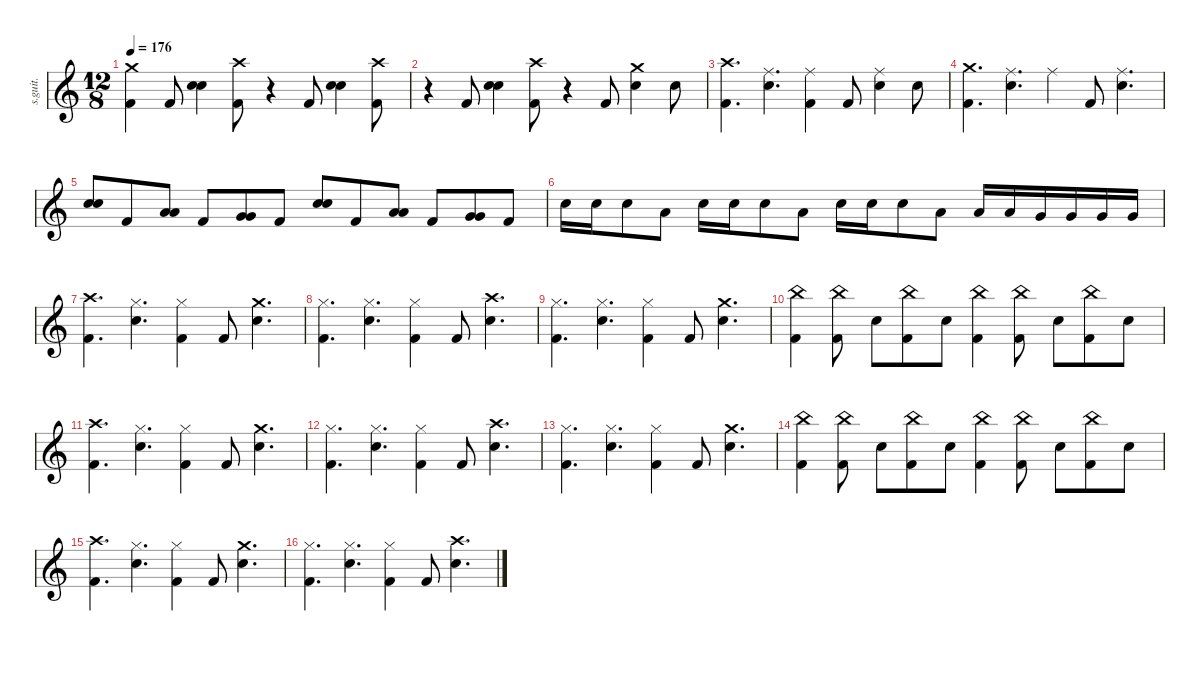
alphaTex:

\defaultSystemsLayout 4
\hideDynamics
\bracketExtendMode nobrackets
\track ("Vinnie Paul" "s.guit.") {instrument percussion}
\staff {score}
\articulation defaults
\ts (12 8)
\tempo 176
\clef g2
\ks c
("Crash medium (hit)" "Kick (hit) 2").4{lyrics (0 "") lyrics (1 "") lyrics (2 "") lyrics (3 "") lyrics (4 "") dy f} "Kick (hit) 2".8{lyrics (0 "") lyrics (1 "") lyrics (2 "") lyrics (3 "") lyrics (4 "")} ("Snare (hit) 2" "Snare (hit) 2").4{lyrics (0 "") lyrics (1 "") lyrics (2 "") lyrics (3 "") lyrics (4 "")} ("Crash high (hit)" "Kick (hit) 2").8{lyrics (0 "") lyrics (1 "") lyrics (2 "") lyrics (3 "") lyrics (4 "")} r.4 "Kick (hit) 2".8{lyrics (0 "") lyrics (1 "") lyrics (2 "") lyrics (3 "") lyrics (4 "")} ("Snare (hit) 2" "Snare (hit) 2").4{lyrics (0 "") lyrics (1 "") lyrics (2 "") lyrics (3 "") lyrics (4 "")} ("Crash high (hit)" "Kick (hit) 2").8{lyrics (0 "") lyrics (1 "") lyrics (2 "") lyrics (3 "") lyrics (4 "")} |
r.4 "Kick (hit) 2".8{lyrics (0 "") lyrics (1 "") lyrics (2 "") lyrics (3 "") lyrics (4 "")} ("Snare (hit) 2" "Snare (hit) 2").4{lyrics (0 "") lyrics (1 "") lyrics (2 "") lyrics (3 "") lyrics (4 "")} ("Crash high (hit)" "Kick (hit) 2").8{lyrics (0 "") lyrics (1 "") lyrics (2 "") lyrics (3 "") lyrics (4 "")} r.4 "Kick (hit) 2".8{lyrics (0 "") lyrics (1 "") lyrics (2 "") lyrics (3 "") lyrics (4 "")} ("Crash medium (hit)" "Snare (hit) 2").4{lyrics (0 "") lyrics (1 "") lyrics (2 "") lyrics (3 "") lyrics (4 "")} "Snare (hit) 2".8{lyrics (0 "") lyrics (1 "") lyrics (2 "") lyrics (3 "") lyrics (4 "")} |
("Crash high (hit)" "Kick (hit) 2").4{d lyrics (0 "") lyrics (1 "") lyrics (2 "") lyrics (3 "") lyrics (4 "")} ("Ride (middle)" "Snare (hit) 2").4{d lyrics (0 "") lyrics (1 "") lyrics (2 "") lyrics (3 "") lyrics (4 "")} ("Ride (middle)" "Kick (hit) 2").4{lyrics (0 "") lyrics (1 "") lyrics (2 "") lyrics (3 "") lyrics (4 "")} "Kick (hit) 2".8{lyrics (0 "") lyrics (1 "") lyrics (2 "") lyrics (3 "") lyrics (4 "")} ("Ride (middle)" "Snare (hit) 2").4{lyrics (0 "") lyrics (1 "") lyrics (2 "") lyrics (3 "") lyrics (4 "")} "Snare (hit) 2".8{lyrics (0 "") lyrics (1 "") lyrics (2 "") lyrics (3 "") lyrics (4 "")} |
("Crash medium (hit)" "Kick (hit) 2").4{d lyrics (0 "") lyrics (1 "") lyrics (2 "") lyrics (3 "") lyrics (4 "")} ("Ride (middle)" "Snare (hit) 2").4{d lyrics (0 "") lyrics (1 "") lyrics (2 "") lyrics (3 "") lyrics (4 "")} "Ride (middle)".4{lyrics (0 "") lyrics (1 "") lyrics (2 "") lyrics (3 "") lyrics (4 "")} "Kick (hit) 2".8{lyrics (0 "") lyrics (1 "") lyrics (2 "") lyrics (3 "") lyrics (4 "")} ("Ride (middle)" "Snare (hit) 2").4{d lyrics (0 "") lyrics (1 "") lyrics (2 "") lyrics (3 "") lyrics (4 "")} |
("Snare (hit) 2" "Snare (hit) 2").8{lyrics (0 "") lyrics (1 "") lyrics (2 "") lyrics (3 "") lyrics (4 "")} "Kick (hit) 2".8{lyrics (0 "") lyrics (1 "") lyrics (2 "") lyrics (3 "") lyrics (4 "")} ("Low Tom (hit)" "Low Tom (hit)").8{lyrics (0 "") lyrics (1 "") lyrics (2 "") lyrics (3 "") lyrics (4 "")} "Kick (hit) 2".8{lyrics (0 "") lyrics (1 "") lyrics (2 "") lyrics (3 "") lyrics (4 "")} ("Very Low Tom (hit)" "Very Low Tom (hit)").8{lyrics (0 "") lyrics (1 "") lyrics (2 "") lyrics (3 "") lyrics (4 "")} "Kick (hit) 2".8{lyrics (0 "") lyrics (1 "") lyrics (2 "") lyrics (3 "") lyrics (4 "")} ("Snare (hit) 2" "Snare (hit) 2").8{lyrics (0 "") lyrics (1 "") lyrics (2 "") lyrics (3 "") lyrics (4 "")} "Kick (hit) 2".8{lyrics (0 "") lyrics (1 "") lyrics (2 "") lyrics (3 "") lyrics (4 "")} ("Low Tom (hit)" "Low Tom (hit)").8{lyrics (0 "") lyrics (1 "") lyrics (2 "") lyrics (3 "") lyrics (4 "")} "Kick (hit) 2".8{lyrics (0 "") lyrics (1 "") lyrics (2 "") lyrics (3 "") lyrics (4 "")} ("Very Low Tom (hit)" "Very Low Tom (hit)").8{lyrics (0 "") lyrics (1 "") lyrics (2 "") lyrics (3 "") lyrics (4 "")} "Kick (hit) 2".8{lyrics (0 "") lyrics (1 "") lyrics (2 "") lyrics (3 "") lyrics (4 "")} |
"Snare (hit) 2".16{lyrics (0 "") lyrics (1 "") lyrics (2 "") lyrics (3 "") lyrics (4 "")} "Snare (hit) 2".16{lyrics (0 "") lyrics (1 "") lyrics (2 "") lyrics (3 "") lyrics (4 "")} "Snare (hit) 2".8{lyrics (0 "") lyrics (1 "") lyrics (2 "") lyrics (3 "") lyrics (4 "")} "Low Tom (hit)".8{lyrics (0 "") lyrics (1 "") lyrics (2 "") lyrics (3 "") lyrics (4 "")} "Snare (hit) 2".16{lyrics (0 "") lyrics (1 "") lyrics (2 "") lyrics (3 "") lyrics (4 "")} "Snare (hit) 2".16{lyrics (0 "") lyrics (1 "") lyrics (2 "") lyrics (3 "") lyrics (4 "")} "Snare (hit) 2".8{lyrics (0 "") lyrics (1 "") lyrics (2 "") lyrics (3 "") lyrics (4 "")} "Low Tom (hit)".8{lyrics (0 "") lyrics (1 "") lyrics (2 "") lyrics (3 "") lyrics (4 "")} "Snare (hit) 2".16{lyrics (0 "") lyrics (1 "") lyrics (2 "") lyrics (3 "") lyrics (4 "")} "Snare (hit) 2".16{lyrics (0 "") lyrics (1 "") lyrics (2 "") lyrics (3 "") lyrics (4 "")} "Snare (hit) 2".8{lyrics (0 "") lyrics (1 "") lyrics (2 "") lyrics (3 "") lyrics (4 "")} "Low Tom (hit)".8{lyrics (0 "") lyrics (1 "") lyrics (2 "") lyrics (3 "") lyrics (4 "")} "Low Tom (hit)".16{lyrics (0 "") lyrics (1 "") lyrics (2 "") lyrics (3 "") lyrics (4 "")} "Low Tom (hit)".16{lyrics (0 "") lyrics (1 "") lyrics (2 "") lyrics (3 "") lyrics (4 "")} "Very Low Tom (hit)".16{lyrics (0 "") lyrics (1 "") lyrics (2 "") lyrics (3 "") lyrics (4 "")} "Very Low Tom (hit)".16{lyrics (0 "") lyrics (1 "") lyrics (2 "") lyrics (3 "") lyrics (4 "")} "Very Low Tom (hit)".16{lyrics (0 "") lyrics (1 "") lyrics (2 "") lyrics (3 "") lyrics (4 "")} "Very Low Tom (hit)".16{lyrics (0 "") lyrics (1 "") lyrics (2 "") lyrics (3 "") lyrics (4 "")} |
("Crash high (hit)" "Kick (hit) 2").4{d lyrics (0 "") lyrics (1 "") lyrics (2 "") lyrics (3 "") lyrics (4 "")} ("Hi-Hat (closed)" "Snare (hit) 2").4{d lyrics (0 "") lyrics (1 "") lyrics (2 "") lyrics (3 "") lyrics (4 "")} ("Hi-Hat (closed)" "Kick (hit) 2").4{lyrics (0 "") lyrics (1 "") lyrics (2 "") lyrics (3 "") lyrics (4 "")} "Kick (hit) 2".8{lyrics (0 "") lyrics (1 "") lyrics (2 "") lyrics (3 "") lyrics (4 "")} ("Crash medium (hit)" "Snare (hit) 2").4{d lyrics (0 "") lyrics (1 "") lyrics (2 "") lyrics (3 "") lyrics (4 "")} |
("Hi-Hat (closed)" "Kick (hit) 2").4{d lyrics (0 "") lyrics (1 "") lyrics (2 "") lyrics (3 "") lyrics (4 "")} ("Hi-Hat (closed)" "Snare (hit) 2").4{d lyrics (0 "") lyrics (1 "") lyrics (2 "") lyrics (3 "") lyrics (4 "")} ("Hi-Hat (closed)" "Kick (hit) 2").4{lyrics (0 "") lyrics (1 "") lyrics (2 "") lyrics (3 "") lyrics (4 "")} "Kick (hit) 2".8{lyrics (0 "") lyrics (1 "") lyrics (2 "") lyrics (3 "") lyrics (4 "")} ("Crash high (hit)" "Snare (hit) 2").4{d lyrics (0 "") lyrics (1 "") lyrics (2 "") lyrics (3 "") lyrics (4 "")} |
("Hi-Hat (closed)" "Kick (hit) 2").4{d lyrics (0 "") lyrics (1 "") lyrics (2 "") lyrics (3 "") lyrics (4 "")} ("Hi-Hat (closed)" "Snare (hit) 2").4{d lyrics (0 "") lyrics (1 "") lyrics (2 "") lyrics (3 "") lyrics (4 "")} ("Hi-Hat (closed)" "Kick (hit) 2").4{lyrics (0 "") lyrics (1 "") lyrics (2 "") lyrics (3 "") lyrics (4 "")} "Kick (hit) 2".8{lyrics (0 "") lyrics (1 "") lyrics (2 "") lyrics (3 "") lyrics (4 "")} ("Crash medium (hit)" "Snare (hit) 2").4{d lyrics (0 "") lyrics (1 "") lyrics (2 "") lyrics (3 "") lyrics (4 "")} |
("China (hit)" "Kick (hit) 2").4{lyrics (0 "") lyrics (1 "") lyrics (2 "") lyrics (3 "") lyrics (4 "")} ("China (hit)" "Kick (hit) 2").8{lyrics (0 "") lyrics (1 "") lyrics (2 "") lyrics (3 "") lyrics (4 "")} "Snare (hit) 2".8{lyrics (0 "") lyrics (1 "") lyrics (2 "") lyrics (3 "") lyrics (4 "")} ("China (hit)" "Kick (hit) 2").8{lyrics (0 "") lyrics (1 "") lyrics (2 "") lyrics (3 "") lyrics (4 "")} "Snare (hit) 2".8{lyrics (0 "") lyrics (1 "") lyrics (2 "") lyrics (3 "") lyrics (4 "")} ("China (hit)" "Kick (hit) 2").4{lyrics (0 "") lyrics (1 "") lyrics (2 "") lyrics (3 "") lyrics (4 "")} ("China (hit)" "Kick (hit) 2").8{lyrics (0 "") lyrics (1 "") lyrics (2 "") lyrics (3 "") lyrics (4 "")} "Snare (hit) 2".8{lyrics (0 "") lyrics (1 "") lyrics (2 "") lyrics (3 "") lyrics (4 "")} ("China (hit)" "Kick (hit) 2").8{lyrics (0 "") lyrics (1 "") lyrics (2 "") lyrics (3 "") lyrics (4 "")} "Snare (hit) 2".8{lyrics (0 "") lyrics (1 "") lyrics (2 "") lyrics (3 "") lyrics (4 "")} |
("Crash high (hit)" "Kick (hit) 2").4{d lyrics (0 "") lyrics (1 "") lyrics (2 "") lyrics (3 "") lyrics (4 "")} ("Hi-Hat (closed)" "Snare (hit) 2").4{d lyrics (0 "") lyrics (1 "") lyrics (2 "") lyrics (3 "") lyrics (4 "")} ("Hi-Hat (closed)" "Kick (hit) 2").4{lyrics (0 "") lyrics (1 "") lyrics (2 "") lyrics (3 "") lyrics (4 "")} "Kick (hit) 2".8{lyrics (0 "") lyrics (1 "") lyrics (2 "") lyrics (3 "") lyrics (4 "")} ("Crash medium (hit)" "Snare (hit) 2").4{d lyrics (0 "") lyrics (1 "") lyrics (2 "") lyrics (3 "") lyrics (4 "")} |
("Hi-Hat (closed)" "Kick (hit) 2").4{d lyrics (0 "") lyrics (1 "") lyrics (2 "") lyrics (3 "") lyrics (4 "")} ("Hi-Hat (closed)" "Snare (hit) 2").4{d lyrics (0 "") lyrics (1 "") lyrics (2 "") lyrics (3 "") lyrics (4 "")} ("Hi-Hat (closed)" "Kick (hit) 2").4{lyrics (0 "") lyrics (1 "") lyrics (2 "") lyrics (3 "") lyrics (4 "")} "Kick (hit) 2".8{lyrics (0 "") lyrics (1 "") lyrics (2 "") lyrics (3 "") lyrics (4 "")} ("Crash high (hit)" "Snare (hit) 2").4{d lyrics (0 "") lyrics (1 "") lyrics (2 "") lyrics (3 "") lyrics (4 "")} |
("Hi-Hat (closed)" "Kick (hit) 2").4{d lyrics (0 "") lyrics (1 "") lyrics (2 "") lyrics (3 "") lyrics (4 "")} ("Hi-Hat (closed)" "Snare (hit) 2").4{d lyrics (0 "") lyrics (1 "") lyrics (2 "") lyrics (3 "") lyrics (4 "")} ("Hi-Hat (closed)" "Kick (hit) 2").4{lyrics (0 "") lyrics (1 "") lyrics (2 "") lyrics (3 "") lyrics (4 "")} "Kick (hit) 2".8{lyrics (0 "") lyrics (1 "") lyrics (2 "") lyrics (3 "") lyrics (4 "")} ("Crash medium (hit)" "Snare (hit) 2").4{d lyrics (0 "") lyrics (1 "") lyrics (2 "") lyrics (3 "") lyrics (4 "")} |
("China (hit)" "Kick (hit) 2").4{lyrics (0 "") lyrics (1 "") lyrics (2 "") lyrics (3 "") lyrics (4 "")} ("China (hit)" "Kick (hit) 2").8{lyrics (0 "") lyrics (1 "") lyrics (2 "") lyrics (3 "") lyrics (4 "")} "Snare (hit) 2".8{lyrics (0 "") lyrics (1 "") lyrics (2 "") lyrics (3 "") lyrics (4 "")} ("China (hit)" "Kick (hit) 2").8{lyrics (0 "") lyrics (1 "") lyrics (2 "") lyrics (3 "") lyrics (4 "")} "Snare (hit) 2".8{lyrics (0 "") lyrics (1 "") lyrics (2 "") lyrics (3 "") lyrics (4 "")} ("China (hit)" "Kick (hit) 2").4{lyrics (0 "") lyrics (1 "") lyrics (2 "") lyrics (3 "") lyrics (4 "")} ("China (hit)" "Kick (hit) 2").8{lyrics (0 "") lyrics (1 "") lyrics (2 "") lyrics (3 "") lyrics (4 "")} "Snare (hit) 2".8{lyrics (0 "") lyrics (1 "") lyrics (2 "") lyrics (3 "") lyrics (4 "")} ("China (hit)" "Kick (hit) 2").8{lyrics (0 "") lyrics (1 "") lyrics (2 "") lyrics (3 "") lyrics (4 "")} "Snare (hit) 2".8{lyrics (0 "") lyrics (1 "") lyrics (2 "") lyrics (3 "") lyrics (4 "")} |
("Crash high (hit)" "Kick (hit) 2").4{d lyrics (0 "") lyrics (1 "") lyrics (2 "") lyrics (3 "") lyrics (4 "")} ("Hi-Hat (closed)" "Snare (hit) 2").4{d lyrics (0 "") lyrics (1 "") lyrics (2 "") lyrics (3 "") lyrics (4 "")} ("Hi-Hat (closed)" "Kick (hit) 2").4{lyrics (0 "") lyrics (1 "") lyrics (2 "") lyrics (3 "") lyrics (4 "")} "Kick (hit) 2".8{lyrics (0 "") lyrics (1 "") lyrics (2 "") lyrics (3 "") lyrics (4 "")} ("Crash medium (hit)" "Snare (hit) 2").4{d lyrics (0 "") lyrics (1 "") lyrics (2 "") lyrics (3 "") lyrics (4 "")} |
("Hi-Hat (closed)" "Kick (hit) 2").4{d lyrics (0 "") lyrics (1 "") lyrics (2 "") lyrics (3 "") lyrics (4 "")} ("Hi-Hat (closed)" "Snare (hit) 2").4{d lyrics (0 "") lyrics (1 "") lyrics (2 "") lyrics (3 "") lyrics (4 "")} ("Hi-Hat (closed)" "Kick (hit) 2").4{lyrics (0 "") lyrics (1 "") lyrics (2 "") lyrics (3 "") lyrics (4 "")} "Kick (hit) 2".8{lyrics (0 "") lyrics (1 "") lyrics (2 "") lyrics (3 "") lyrics (4 "")} ("Crash high (hit)" "Snare (hit) 2").4{d lyrics (0 "") lyrics (1 "") lyrics (2 "") lyrics (3 "") lyrics (4 "")}
